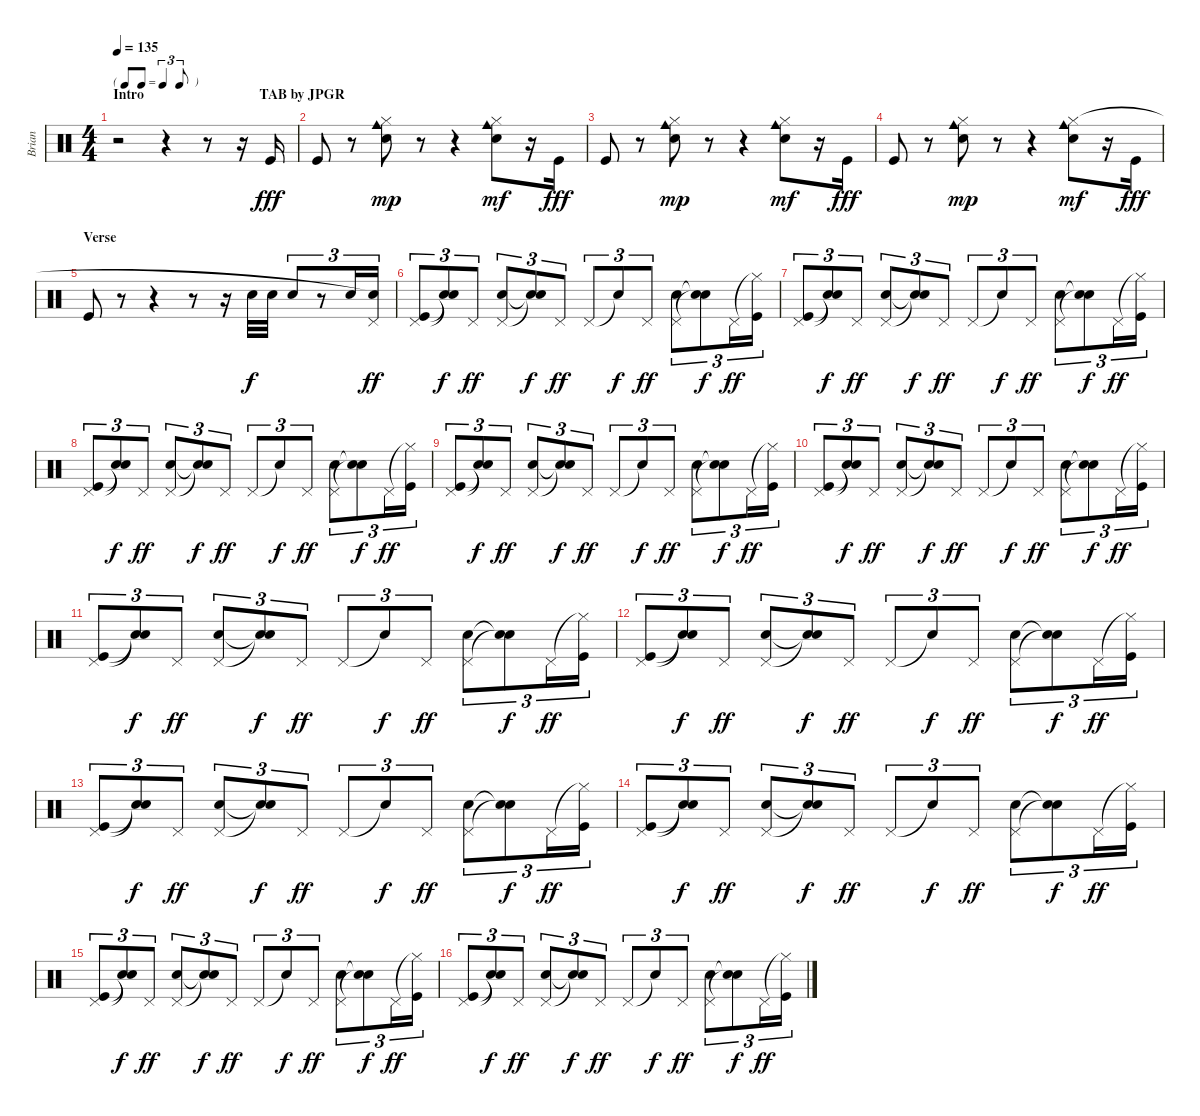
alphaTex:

\track ("Brian" "Brian") {instrument percussion}
\staff {score}
\articulation defaults
\ts (4 4)
\tf triplet8th
\section ("" "Intro                                 TAB by JPGR")
\tempo 135
\clef neutral
\ks c
r.2{dy fff} r.4 r.8 r.16 "Kick (hit)".16 |
"Kick (hit)".8 r.8 ("Cowbell medium (hit)" "Hi-Hat (closed)" "Snare (hit) 2").8{dy mp} r.8 r.4 ("Cowbell medium (hit)" "Hi-Hat (closed)" "Snare (hit) 2").8{dy mf} r.16 "Kick (hit)".16{dy fff} |
"Kick (hit)".8 r.8 ("Cowbell medium (hit)" "Hi-Hat (closed)" "Snare (hit) 2").8{dy mp} r.8 r.4 ("Cowbell medium (hit)" "Hi-Hat (closed)" "Snare (hit) 2").8{dy mf} r.16 "Kick (hit)".16{dy fff} |
"Kick (hit)".8 r.8 ("Cowbell medium (hit)" "Hi-Hat (closed)" "Snare (hit) 2").8{dy mp} r.8 r.4 ("Cowbell medium (hit)" "Hi-Hat (closed)" "Snare (hit) 2").8{dy mf} r.16 "Kick (hit)".16{dy fff} |
\section ("" "Verse")
"Kick (hit)".8 r.8 r.4 r.8 r.16 "Snare (hit) 2".32{dy f} "Snare (hit) 2".32 "Snare (hit) 2".8{tu (3 2)} r.8{tu (3 2)} "Snare (hit) 2".16{tu (3 2)} ("Pedal Hi-Hat (hit)" "Snare (hit)"{t}).16{tu (3 2) dy ff} |
("Pedal Hi-Hat (hit)" "Kick (hit)").8{tu (3 2)} ("Snare (hit)"{t} "Snare (hit)"{t}).8{tu (3 2) dy f} "Pedal Hi-Hat (hit)".8{tu (3 2) dy ff} ("Pedal Hi-Hat (hit)" "Snare (hit) 2").8{tu (3 2)} ("Snare (hit)"{t} "Snare (hit)"{t}).8{tu (3 2) dy f} "Pedal Hi-Hat (hit)".8{tu (3 2) dy ff} "Pedal Hi-Hat (hit)".8{tu (3 2)} "Snare (hit)"{t}.8{tu (3 2) dy f} "Pedal Hi-Hat (hit)".8{tu (3 2) dy ff} ("Pedal Hi-Hat (hit)" "Snare (hit) 2").8{tu (3 2)} ("Snare (hit)"{t} "Snare (hit)"{t}).8{tu (3 2) dy f} "Pedal Hi-Hat (hit)".16{tu (3 2) dy ff} ("Hi-Hat (closed)"{t} "Kick (hit)").16{tu (3 2)} |
("Pedal Hi-Hat (hit)" "Kick (hit)").8{tu (3 2)} ("Snare (hit)"{t} "Snare (hit)"{t}).8{tu (3 2) dy f} "Pedal Hi-Hat (hit)".8{tu (3 2) dy ff} ("Pedal Hi-Hat (hit)" "Snare (hit) 2").8{tu (3 2)} ("Snare (hit)"{t} "Snare (hit)"{t}).8{tu (3 2) dy f} "Pedal Hi-Hat (hit)".8{tu (3 2) dy ff} "Pedal Hi-Hat (hit)".8{tu (3 2)} "Snare (hit)"{t}.8{tu (3 2) dy f} "Pedal Hi-Hat (hit)".8{tu (3 2) dy ff} ("Pedal Hi-Hat (hit)" "Snare (hit) 2").8{tu (3 2)} ("Snare (hit)"{t} "Snare (hit)"{t}).8{tu (3 2) dy f} "Pedal Hi-Hat (hit)".16{tu (3 2) dy ff} ("Hi-Hat (closed)"{t} "Kick (hit)").16{tu (3 2)} |
("Pedal Hi-Hat (hit)" "Kick (hit)").8{tu (3 2)} ("Snare (hit)"{t} "Snare (hit)"{t}).8{tu (3 2) dy f} "Pedal Hi-Hat (hit)".8{tu (3 2) dy ff} ("Pedal Hi-Hat (hit)" "Snare (hit) 2").8{tu (3 2)} ("Snare (hit)"{t} "Snare (hit)"{t}).8{tu (3 2) dy f} "Pedal Hi-Hat (hit)".8{tu (3 2) dy ff} "Pedal Hi-Hat (hit)".8{tu (3 2)} "Snare (hit)"{t}.8{tu (3 2) dy f} "Pedal Hi-Hat (hit)".8{tu (3 2) dy ff} ("Pedal Hi-Hat (hit)" "Snare (hit) 2").8{tu (3 2)} ("Snare (hit)"{t} "Snare (hit)"{t}).8{tu (3 2) dy f} "Pedal Hi-Hat (hit)".16{tu (3 2) dy ff} ("Hi-Hat (closed)"{t} "Kick (hit)").16{tu (3 2)} |
("Pedal Hi-Hat (hit)" "Kick (hit)").8{tu (3 2)} ("Snare (hit)"{t} "Snare (hit)"{t}).8{tu (3 2) dy f} "Pedal Hi-Hat (hit)".8{tu (3 2) dy ff} ("Pedal Hi-Hat (hit)" "Snare (hit) 2").8{tu (3 2)} ("Snare (hit)"{t} "Snare (hit)"{t}).8{tu (3 2) dy f} "Pedal Hi-Hat (hit)".8{tu (3 2) dy ff} "Pedal Hi-Hat (hit)".8{tu (3 2)} "Snare (hit)"{t}.8{tu (3 2) dy f} "Pedal Hi-Hat (hit)".8{tu (3 2) dy ff} ("Pedal Hi-Hat (hit)" "Snare (hit) 2").8{tu (3 2)} ("Snare (hit)"{t} "Snare (hit)"{t}).8{tu (3 2) dy f} "Pedal Hi-Hat (hit)".16{tu (3 2) dy ff} ("Hi-Hat (closed)"{t} "Kick (hit)").16{tu (3 2)} |
("Pedal Hi-Hat (hit)" "Kick (hit)").8{tu (3 2)} ("Snare (hit)"{t} "Snare (hit)"{t}).8{tu (3 2) dy f} "Pedal Hi-Hat (hit)".8{tu (3 2) dy ff} ("Pedal Hi-Hat (hit)" "Snare (hit) 2").8{tu (3 2)} ("Snare (hit)"{t} "Snare (hit)"{t}).8{tu (3 2) dy f} "Pedal Hi-Hat (hit)".8{tu (3 2) dy ff} "Pedal Hi-Hat (hit)".8{tu (3 2)} "Snare (hit)"{t}.8{tu (3 2) dy f} "Pedal Hi-Hat (hit)".8{tu (3 2) dy ff} ("Pedal Hi-Hat (hit)" "Snare (hit) 2").8{tu (3 2)} ("Snare (hit)"{t} "Snare (hit)"{t}).8{tu (3 2) dy f} "Pedal Hi-Hat (hit)".16{tu (3 2) dy ff} ("Hi-Hat (closed)"{t} "Kick (hit)").16{tu (3 2)} |
("Pedal Hi-Hat (hit)" "Kick (hit)").8{tu (3 2)} ("Snare (hit)"{t} "Snare (hit)"{t}).8{tu (3 2) dy f} "Pedal Hi-Hat (hit)".8{tu (3 2) dy ff} ("Pedal Hi-Hat (hit)" "Snare (hit) 2").8{tu (3 2)} ("Snare (hit)"{t} "Snare (hit)"{t}).8{tu (3 2) dy f} "Pedal Hi-Hat (hit)".8{tu (3 2) dy ff} "Pedal Hi-Hat (hit)".8{tu (3 2)} "Snare (hit)"{t}.8{tu (3 2) dy f} "Pedal Hi-Hat (hit)".8{tu (3 2) dy ff} ("Pedal Hi-Hat (hit)" "Snare (hit) 2").8{tu (3 2)} ("Snare (hit)"{t} "Snare (hit)"{t}).8{tu (3 2) dy f} "Pedal Hi-Hat (hit)".16{tu (3 2) dy ff} ("Hi-Hat (closed)"{t} "Kick (hit)").16{tu (3 2)} |
("Pedal Hi-Hat (hit)" "Kick (hit)").8{tu (3 2)} ("Snare (hit)"{t} "Snare (hit)"{t}).8{tu (3 2) dy f} "Pedal Hi-Hat (hit)".8{tu (3 2) dy ff} ("Pedal Hi-Hat (hit)" "Snare (hit) 2").8{tu (3 2)} ("Snare (hit)"{t} "Snare (hit)"{t}).8{tu (3 2) dy f} "Pedal Hi-Hat (hit)".8{tu (3 2) dy ff} "Pedal Hi-Hat (hit)".8{tu (3 2)} "Snare (hit)"{t}.8{tu (3 2) dy f} "Pedal Hi-Hat (hit)".8{tu (3 2) dy ff} ("Pedal Hi-Hat (hit)" "Snare (hit) 2").8{tu (3 2)} ("Snare (hit)"{t} "Snare (hit)"{t}).8{tu (3 2) dy f} "Pedal Hi-Hat (hit)".16{tu (3 2) dy ff} ("Hi-Hat (closed)"{t} "Kick (hit)").16{tu (3 2)} |
("Pedal Hi-Hat (hit)" "Kick (hit)").8{tu (3 2)} ("Snare (hit)"{t} "Snare (hit)"{t}).8{tu (3 2) dy f} "Pedal Hi-Hat (hit)".8{tu (3 2) dy ff} ("Pedal Hi-Hat (hit)" "Snare (hit) 2").8{tu (3 2)} ("Snare (hit)"{t} "Snare (hit)"{t}).8{tu (3 2) dy f} "Pedal Hi-Hat (hit)".8{tu (3 2) dy ff} "Pedal Hi-Hat (hit)".8{tu (3 2)} "Snare (hit)"{t}.8{tu (3 2) dy f} "Pedal Hi-Hat (hit)".8{tu (3 2) dy ff} ("Pedal Hi-Hat (hit)" "Snare (hit) 2").8{tu (3 2)} ("Snare (hit)"{t} "Snare (hit)"{t}).8{tu (3 2) dy f} "Pedal Hi-Hat (hit)".16{tu (3 2) dy ff} ("Hi-Hat (closed)"{t} "Kick (hit)").16{tu (3 2)} |
("Pedal Hi-Hat (hit)" "Kick (hit)").8{tu (3 2)} ("Snare (hit)"{t} "Snare (hit)"{t}).8{tu (3 2) dy f} "Pedal Hi-Hat (hit)".8{tu (3 2) dy ff} ("Pedal Hi-Hat (hit)" "Snare (hit) 2").8{tu (3 2)} ("Snare (hit)"{t} "Snare (hit)"{t}).8{tu (3 2) dy f} "Pedal Hi-Hat (hit)".8{tu (3 2) dy ff} "Pedal Hi-Hat (hit)".8{tu (3 2)} "Snare (hit)"{t}.8{tu (3 2) dy f} "Pedal Hi-Hat (hit)".8{tu (3 2) dy ff} ("Pedal Hi-Hat (hit)" "Snare (hit) 2").8{tu (3 2)} ("Snare (hit)"{t} "Snare (hit)"{t}).8{tu (3 2) dy f} "Pedal Hi-Hat (hit)".16{tu (3 2) dy ff} ("Hi-Hat (closed)"{t} "Kick (hit)").16{tu (3 2)} |
("Pedal Hi-Hat (hit)" "Kick (hit)").8{tu (3 2)} ("Snare (hit)"{t} "Snare (hit)"{t}).8{tu (3 2) dy f} "Pedal Hi-Hat (hit)".8{tu (3 2) dy ff} ("Pedal Hi-Hat (hit)" "Snare (hit) 2").8{tu (3 2)} ("Snare (hit)"{t} "Snare (hit)"{t}).8{tu (3 2) dy f} "Pedal Hi-Hat (hit)".8{tu (3 2) dy ff} "Pedal Hi-Hat (hit)".8{tu (3 2)} "Snare (hit)"{t}.8{tu (3 2) dy f} "Pedal Hi-Hat (hit)".8{tu (3 2) dy ff} ("Pedal Hi-Hat (hit)" "Snare (hit) 2").8{tu (3 2)} ("Snare (hit)"{t} "Snare (hit)"{t}).8{tu (3 2) dy f} "Pedal Hi-Hat (hit)".16{tu (3 2) dy ff} ("Hi-Hat (closed)"{t} "Kick (hit)").16{tu (3 2)} |
("Pedal Hi-Hat (hit)" "Kick (hit)").8{tu (3 2)} ("Snare (hit)"{t} "Snare (hit)"{t}).8{tu (3 2) dy f} "Pedal Hi-Hat (hit)".8{tu (3 2) dy ff} ("Pedal Hi-Hat (hit)" "Snare (hit) 2").8{tu (3 2)} ("Snare (hit)"{t} "Snare (hit)"{t}).8{tu (3 2) dy f} "Pedal Hi-Hat (hit)".8{tu (3 2) dy ff} "Pedal Hi-Hat (hit)".8{tu (3 2)} "Snare (hit)"{t}.8{tu (3 2) dy f} "Pedal Hi-Hat (hit)".8{tu (3 2) dy ff} ("Pedal Hi-Hat (hit)" "Snare (hit) 2").8{tu (3 2)} ("Snare (hit)"{t} "Snare (hit)"{t}).8{tu (3 2) dy f} "Pedal Hi-Hat (hit)".16{tu (3 2) dy ff} ("Hi-Hat (closed)"{t} "Kick (hit)").16{tu (3 2)}
